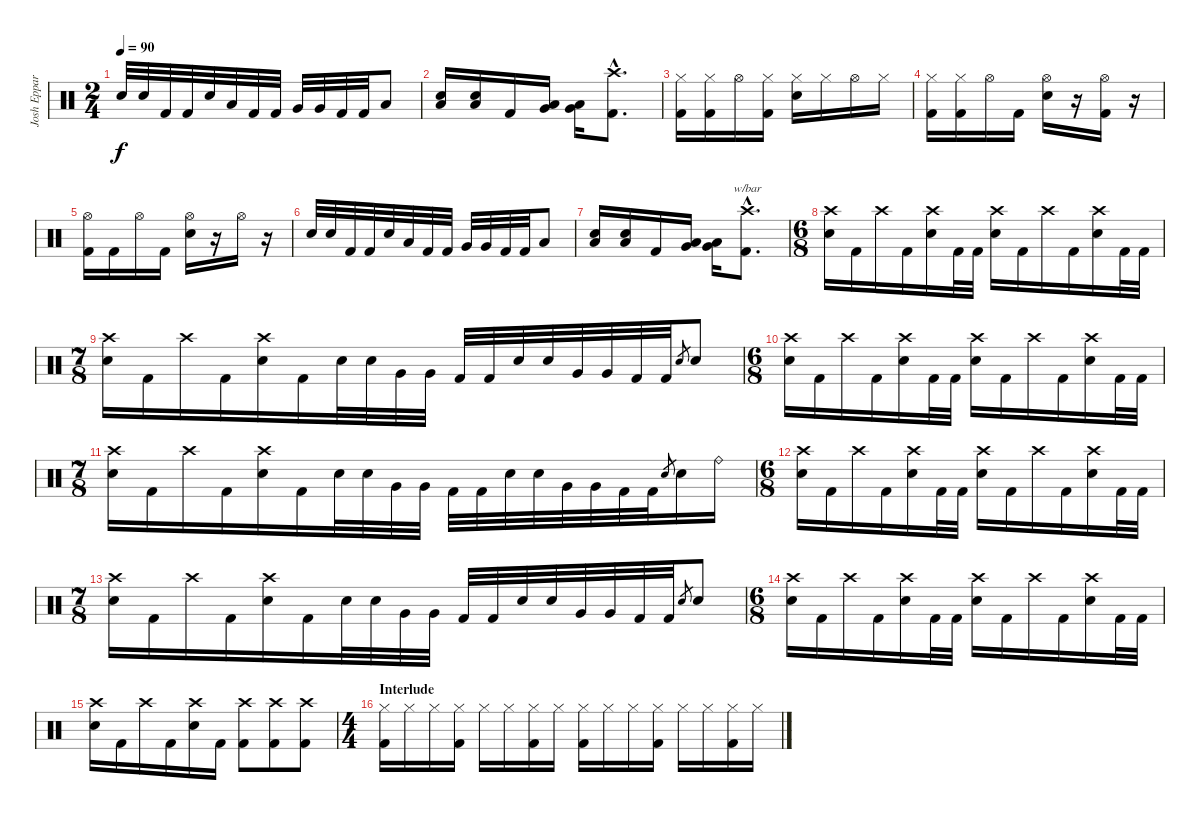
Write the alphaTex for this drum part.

\track ("Josh Eppard" "Josh Eppar") {instrument percussion}
\staff {score}
\articulation defaults
\ts (2 4)
\tempo 90
\clef neutral
\ks c "Electric Snare (hit)".32{dy f} "Electric Snare (hit)".32 "Kick (hit) 2".32 "Kick (hit) 2".32 "Electric Snare (hit)".32 "Low Tom (hit)".32 "Kick (hit) 2".32 "Kick (hit) 2".32 "Very Low Tom (hit)".32 "Very Low Tom (hit)".32 "Kick (hit) 2".32 "Kick (hit) 2".32 "Low Floor Tom (hit)".8
|
("Low Floor Tom (hit)" "Electric Snare (hit)").16 ("Low Floor Tom (hit)" "Electric Snare (hit)").16 "Kick (hit) 2".16 ("Very Low Tom (hit)" "Low Floor Tom (hit)").16 ("Very Low Tom (hit)" "Low Floor Tom (hit)").16 ("Crash high (hit)"{hac} "Kick (hit) 2"{hac}).8{d} |
("Hi-Hat (closed)" "Kick (hit) 2").16 ("Hi-Hat (closed)" "Kick (hit) 2").16 "Hi-Hat (open)".16 ("Hi-Hat (closed)" "Kick (hit) 2").16 ("Hi-Hat (closed)" "Electric Snare (hit)").16 "Hi-Hat (closed)".16 "Hi-Hat (open)".16 "Hi-Hat (closed)".16 |
("Hi-Hat (closed)" "Kick (hit) 2").16 ("Hi-Hat (closed)" "Kick (hit) 2").16 "Hi-Hat (open)".16 "Kick (hit) 2".16 ("Hi-Hat (open)" "Electric Snare (hit)").16 r.16 ("Hi-Hat (open)" "Kick (hit) 2").16 r.16 |
("Hi-Hat (open)" "Kick (hit) 2").16 "Kick (hit) 2".16 "Hi-Hat (open)".16 "Kick (hit) 2".16 ("Hi-Hat (open)" "Electric Snare (hit)").16 r.16 "Hi-Hat (open)".16 r.16 |
"Electric Snare (hit)".32 "Electric Snare (hit)".32 "Kick (hit) 2".32 "Kick (hit) 2".32 "Electric Snare (hit)".32 "Low Tom (hit)".32 "Kick (hit) 2".32 "Kick (hit) 2".32 "Very Low Tom (hit)".32 "Very Low Tom (hit)".32 "Kick (hit) 2".32 "Kick (hit) 2".32 "Low Floor Tom (hit)".8 |
("Low Floor Tom (hit)" "Electric Snare (hit)").16 ("Low Floor Tom (hit)" "Electric Snare (hit)").16 "Kick (hit) 2".16 ("Very Low Tom (hit)" "Low Floor Tom (hit)").16 ("Very Low Tom (hit)" "Low Floor Tom (hit)").16 ("Crash high (hit)"{hac} "Kick (hit) 2"{hac}).8{d tbe (custom default 0 0 46 -24 49 -24 60 -24)} |
\ts (6 8)
("Crash high (hit)" "Electric Snare (hit)").16 "Kick (hit) 2".16 "Crash high (hit)".16 "Kick (hit) 2".16 ("Crash high (hit)" "Electric Snare (hit)").16 "Kick (hit) 2".32 "Kick (hit) 2".32 ("Crash high (hit)" "Electric Snare (hit)").16 "Kick (hit) 2".16 "Crash high (hit)".16 "Kick (hit) 2".16 ("Crash high (hit)" "Electric Snare (hit)").16 "Kick (hit) 2".32 "Kick (hit) 2".32 |
\ts (7 8)
("Crash high (hit)" "Electric Snare (hit)").16 "Kick (hit) 2".16 "Crash high (hit)".16 "Kick (hit) 2".16 ("Crash high (hit)" "Electric Snare (hit)").16 "Kick (hit) 2".16 "Electric Snare (hit)".32 "Electric Snare (hit)".32 "Very Low Tom (hit)".32 "Very Low Tom (hit)".32 "Kick (hit) 2".32 "Kick (hit) 2".32 "Electric Snare (hit)".32 "Electric Snare (hit)".32 "Very Low Tom (hit)".32 "Very Low Tom (hit)".32 "Kick (hit) 2".32 "Kick (hit) 2".32 "Electric Snare (hit)".8{gr} "Electric Snare (hit)".8 |
\ts (6 8)
("Crash high (hit)" "Electric Snare (hit)").16 "Kick (hit) 2".16 "Crash high (hit)".16 "Kick (hit) 2".16 ("Crash high (hit)" "Electric Snare (hit)").16 "Kick (hit) 2".32 "Kick (hit) 2".32 ("Crash high (hit)" "Electric Snare (hit)").16 "Kick (hit) 2".16 "Crash high (hit)".16 "Kick (hit) 2".16 ("Crash high (hit)" "Electric Snare (hit)").16 "Kick (hit) 2".32 "Kick (hit) 2".32 |
\ts (7 8)
("Crash high (hit)" "Electric Snare (hit)").16 "Kick (hit) 2".16 "Crash high (hit)".16 "Kick (hit) 2".16 ("Crash high (hit)" "Electric Snare (hit)").16 "Kick (hit) 2".16 "Electric Snare (hit)".32 "Electric Snare (hit)".32 "Very Low Tom (hit)".32 "Very Low Tom (hit)".32 "Kick (hit) 2".32 "Kick (hit) 2".32 "Electric Snare (hit)".32 "Electric Snare (hit)".32 "Very Low Tom (hit)".32 "Very Low Tom (hit)".32 "Kick (hit) 2".32 "Kick (hit) 2".32 "Electric Snare (hit)".8{gr} "Electric Snare (hit)".16 "Ride (bell)".16 |
\ts (6 8)
("Crash high (hit)" "Electric Snare (hit)").16 "Kick (hit) 2".16 "Crash high (hit)".16 "Kick (hit) 2".16 ("Crash high (hit)" "Electric Snare (hit)").16 "Kick (hit) 2".32 "Kick (hit) 2".32 ("Crash high (hit)" "Electric Snare (hit)").16 "Kick (hit) 2".16 "Crash high (hit)".16 "Kick (hit) 2".16 ("Crash high (hit)" "Electric Snare (hit)").16 "Kick (hit) 2".32 "Kick (hit) 2".32 |
\ts (7 8)
("Crash high (hit)" "Electric Snare (hit)").16 "Kick (hit) 2".16 "Crash high (hit)".16 "Kick (hit) 2".16 ("Crash high (hit)" "Electric Snare (hit)").16 "Kick (hit) 2".16 "Electric Snare (hit)".32 "Electric Snare (hit)".32 "Very Low Tom (hit)".32 "Very Low Tom (hit)".32 "Kick (hit) 2".32 "Kick (hit) 2".32 "Electric Snare (hit)".32 "Electric Snare (hit)".32 "Very Low Tom (hit)".32 "Very Low Tom (hit)".32 "Kick (hit) 2".32 "Kick (hit) 2".32 "Electric Snare (hit)".8{gr} "Electric Snare (hit)".8 |
\ts (6 8)
("Crash high (hit)" "Electric Snare (hit)").16 "Kick (hit) 2".16 "Crash high (hit)".16 "Kick (hit) 2".16 ("Crash high (hit)" "Electric Snare (hit)").16 "Kick (hit) 2".32 "Kick (hit) 2".32 ("Crash high (hit)" "Electric Snare (hit)").16 "Kick (hit) 2".16 "Crash high (hit)".16 "Kick (hit) 2".16 ("Crash high (hit)" "Electric Snare (hit)").16 "Kick (hit) 2".32 "Kick (hit) 2".32 |
("Crash high (hit)" "Electric Snare (hit)").16 "Kick (hit) 2".16 "Crash high (hit)".16 "Kick (hit) 2".16 ("Crash high (hit)" "Electric Snare (hit)").16 "Kick (hit) 2".16 ("Crash high (hit)" "Kick (hit) 2").8 ("Crash high (hit)" "Kick (hit) 2").8 ("Crash high (hit)" "Kick (hit) 2").8 |
\ts (4 4)
\section ("" "Interlude")
("Hi-Hat (closed)" "Kick (hit) 2").16 "Hi-Hat (closed)".16 "Hi-Hat (closed)".16 ("Hi-Hat (closed)" "Kick (hit) 2").16 "Hi-Hat (closed)".16 "Hi-Hat (closed)".16 ("Hi-Hat (closed)" "Kick (hit) 2").16 "Hi-Hat (closed)".16 ("Hi-Hat (closed)" "Kick (hit) 2").16 "Hi-Hat (closed)".16 "Hi-Hat (closed)".16 ("Hi-Hat (closed)" "Kick (hit) 2").16 "Hi-Hat (closed)".16 "Hi-Hat (closed)".16 ("Hi-Hat (closed)" "Kick (hit) 2").16 "Hi-Hat (closed)".16
